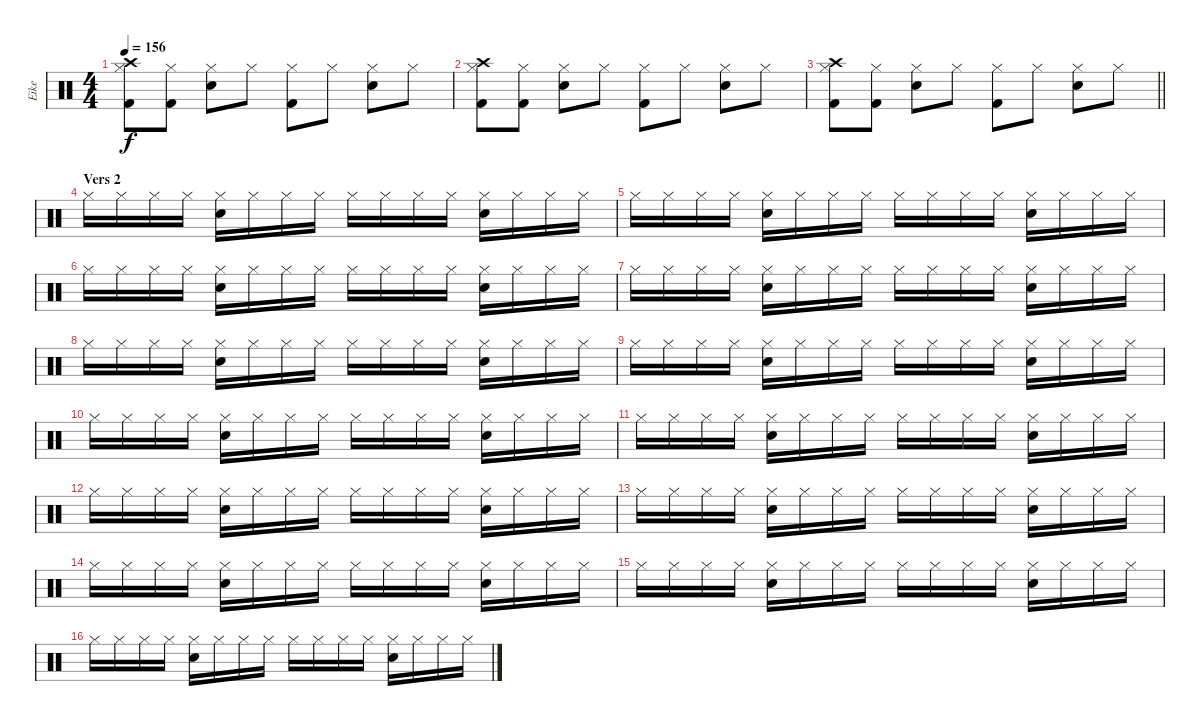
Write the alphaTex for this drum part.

\track ("Eike" "Eike") {instrument percussion}
\staff {score}
\articulation defaults
\ts (4 4)
\tempo 156
\clef neutral
\ks c
("Hi-Hat (closed)" "Kick (hit) 2" "Crash high (hit)").8{dy f} ("Hi-Hat (closed)" "Kick (hit) 2").8 ("Hi-Hat (closed)" "Snare (hit) 2").8 "Hi-Hat (closed)".8 ("Hi-Hat (closed)" "Kick (hit) 2").8 "Hi-Hat (closed)".8 ("Hi-Hat (closed)" "Snare (hit) 2").8 "Hi-Hat (closed)".8 |
("Hi-Hat (closed)" "Kick (hit) 2" "Crash high (hit)").8 ("Hi-Hat (closed)" "Kick (hit) 2").8 ("Hi-Hat (closed)" "Snare (hit) 2").8 "Hi-Hat (closed)".8 ("Hi-Hat (closed)" "Kick (hit) 2").8 "Hi-Hat (closed)".8 ("Hi-Hat (closed)" "Snare (hit) 2").8 "Hi-Hat (closed)".8 |
\barLineRight lightlight
("Hi-Hat (closed)" "Kick (hit) 2" "Crash high (hit)").8 ("Hi-Hat (closed)" "Kick (hit) 2").8 ("Hi-Hat (closed)" "Snare (hit) 2").8 "Hi-Hat (closed)".8 ("Hi-Hat (closed)" "Kick (hit) 2").8 "Hi-Hat (closed)".8 ("Hi-Hat (closed)" "Snare (hit) 2").8 "Hi-Hat (closed)".8 |
\section ("" "Vers 2")
"Hi-Hat (closed)".16 "Hi-Hat (closed)".16 "Hi-Hat (closed)".16 "Hi-Hat (closed)".16 ("Hi-Hat (closed)" "Snare (hit) 2").16 "Hi-Hat (closed)".16 "Hi-Hat (closed)".16 "Hi-Hat (closed)".16 "Hi-Hat (closed)".16 "Hi-Hat (closed)".16 "Hi-Hat (closed)".16 "Hi-Hat (closed)".16 ("Hi-Hat (closed)" "Snare (hit) 2").16 "Hi-Hat (closed)".16 "Hi-Hat (closed)".16 "Hi-Hat (closed)".16 |
"Hi-Hat (closed)".16 "Hi-Hat (closed)".16 "Hi-Hat (closed)".16 "Hi-Hat (closed)".16 ("Hi-Hat (closed)" "Snare (hit) 2").16 "Hi-Hat (closed)".16 "Hi-Hat (closed)".16 "Hi-Hat (closed)".16 "Hi-Hat (closed)".16 "Hi-Hat (closed)".16 "Hi-Hat (closed)".16 "Hi-Hat (closed)".16 ("Hi-Hat (closed)" "Snare (hit) 2").16 "Hi-Hat (closed)".16 "Hi-Hat (closed)".16 "Hi-Hat (closed)".16 |
"Hi-Hat (closed)".16 "Hi-Hat (closed)".16 "Hi-Hat (closed)".16 "Hi-Hat (closed)".16 ("Hi-Hat (closed)" "Snare (hit) 2").16 "Hi-Hat (closed)".16 "Hi-Hat (closed)".16 "Hi-Hat (closed)".16 "Hi-Hat (closed)".16 "Hi-Hat (closed)".16 "Hi-Hat (closed)".16 "Hi-Hat (closed)".16 ("Hi-Hat (closed)" "Snare (hit) 2").16 "Hi-Hat (closed)".16 "Hi-Hat (closed)".16 "Hi-Hat (closed)".16 |
"Hi-Hat (closed)".16 "Hi-Hat (closed)".16 "Hi-Hat (closed)".16 "Hi-Hat (closed)".16 ("Hi-Hat (closed)" "Snare (hit) 2").16 "Hi-Hat (closed)".16 "Hi-Hat (closed)".16 "Hi-Hat (closed)".16 "Hi-Hat (closed)".16 "Hi-Hat (closed)".16 "Hi-Hat (closed)".16 "Hi-Hat (closed)".16 ("Hi-Hat (closed)" "Snare (hit) 2").16 "Hi-Hat (closed)".16 "Hi-Hat (closed)".16 "Hi-Hat (closed)".16 |
"Hi-Hat (closed)".16 "Hi-Hat (closed)".16 "Hi-Hat (closed)".16 "Hi-Hat (closed)".16 ("Hi-Hat (closed)" "Snare (hit) 2").16 "Hi-Hat (closed)".16 "Hi-Hat (closed)".16 "Hi-Hat (closed)".16 "Hi-Hat (closed)".16 "Hi-Hat (closed)".16 "Hi-Hat (closed)".16 "Hi-Hat (closed)".16 ("Hi-Hat (closed)" "Snare (hit) 2").16 "Hi-Hat (closed)".16 "Hi-Hat (closed)".16 "Hi-Hat (closed)".16 |
"Hi-Hat (closed)".16 "Hi-Hat (closed)".16 "Hi-Hat (closed)".16 "Hi-Hat (closed)".16 ("Hi-Hat (closed)" "Snare (hit) 2").16 "Hi-Hat (closed)".16 "Hi-Hat (closed)".16 "Hi-Hat (closed)".16 "Hi-Hat (closed)".16 "Hi-Hat (closed)".16 "Hi-Hat (closed)".16 "Hi-Hat (closed)".16 ("Hi-Hat (closed)" "Snare (hit) 2").16 "Hi-Hat (closed)".16 "Hi-Hat (closed)".16 "Hi-Hat (closed)".16 |
"Hi-Hat (closed)".16 "Hi-Hat (closed)".16 "Hi-Hat (closed)".16 "Hi-Hat (closed)".16 ("Hi-Hat (closed)" "Snare (hit) 2").16 "Hi-Hat (closed)".16 "Hi-Hat (closed)".16 "Hi-Hat (closed)".16 "Hi-Hat (closed)".16 "Hi-Hat (closed)".16 "Hi-Hat (closed)".16 "Hi-Hat (closed)".16 ("Hi-Hat (closed)" "Snare (hit) 2").16 "Hi-Hat (closed)".16 "Hi-Hat (closed)".16 "Hi-Hat (closed)".16 |
"Hi-Hat (closed)".16 "Hi-Hat (closed)".16 "Hi-Hat (closed)".16 "Hi-Hat (closed)".16 ("Hi-Hat (closed)" "Snare (hit) 2").16 "Hi-Hat (closed)".16 "Hi-Hat (closed)".16 "Hi-Hat (closed)".16 "Hi-Hat (closed)".16 "Hi-Hat (closed)".16 "Hi-Hat (closed)".16 "Hi-Hat (closed)".16 ("Hi-Hat (closed)" "Snare (hit) 2").16 "Hi-Hat (closed)".16 "Hi-Hat (closed)".16 "Hi-Hat (closed)".16 |
"Hi-Hat (closed)".16 "Hi-Hat (closed)".16 "Hi-Hat (closed)".16 "Hi-Hat (closed)".16 ("Hi-Hat (closed)" "Snare (hit) 2").16 "Hi-Hat (closed)".16 "Hi-Hat (closed)".16 "Hi-Hat (closed)".16 "Hi-Hat (closed)".16 "Hi-Hat (closed)".16 "Hi-Hat (closed)".16 "Hi-Hat (closed)".16 ("Hi-Hat (closed)" "Snare (hit) 2").16 "Hi-Hat (closed)".16 "Hi-Hat (closed)".16 "Hi-Hat (closed)".16 |
"Hi-Hat (closed)".16 "Hi-Hat (closed)".16 "Hi-Hat (closed)".16 "Hi-Hat (closed)".16 ("Hi-Hat (closed)" "Snare (hit) 2").16 "Hi-Hat (closed)".16 "Hi-Hat (closed)".16 "Hi-Hat (closed)".16 "Hi-Hat (closed)".16 "Hi-Hat (closed)".16 "Hi-Hat (closed)".16 "Hi-Hat (closed)".16 ("Hi-Hat (closed)" "Snare (hit) 2").16 "Hi-Hat (closed)".16 "Hi-Hat (closed)".16 "Hi-Hat (closed)".16 |
"Hi-Hat (closed)".16 "Hi-Hat (closed)".16 "Hi-Hat (closed)".16 "Hi-Hat (closed)".16 ("Hi-Hat (closed)" "Snare (hit) 2").16 "Hi-Hat (closed)".16 "Hi-Hat (closed)".16 "Hi-Hat (closed)".16 "Hi-Hat (closed)".16 "Hi-Hat (closed)".16 "Hi-Hat (closed)".16 "Hi-Hat (closed)".16 ("Hi-Hat (closed)" "Snare (hit) 2").16 "Hi-Hat (closed)".16 "Hi-Hat (closed)".16 "Hi-Hat (closed)".16 |
"Hi-Hat (closed)".16 "Hi-Hat (closed)".16 "Hi-Hat (closed)".16 "Hi-Hat (closed)".16 ("Hi-Hat (closed)" "Snare (hit) 2").16 "Hi-Hat (closed)".16 "Hi-Hat (closed)".16 "Hi-Hat (closed)".16 "Hi-Hat (closed)".16 "Hi-Hat (closed)".16 "Hi-Hat (closed)".16 "Hi-Hat (closed)".16 ("Hi-Hat (closed)" "Snare (hit) 2").16 "Hi-Hat (closed)".16 "Hi-Hat (closed)".16 "Hi-Hat (closed)".16 |
"Hi-Hat (closed)".16 "Hi-Hat (closed)".16 "Hi-Hat (closed)".16 "Hi-Hat (closed)".16 ("Hi-Hat (closed)" "Snare (hit) 2").16 "Hi-Hat (closed)".16 "Hi-Hat (closed)".16 "Hi-Hat (closed)".16 "Hi-Hat (closed)".16 "Hi-Hat (closed)".16 "Hi-Hat (closed)".16 "Hi-Hat (closed)".16 ("Hi-Hat (closed)" "Snare (hit) 2").16 "Hi-Hat (closed)".16 "Hi-Hat (closed)".16 "Hi-Hat (closed)".16
